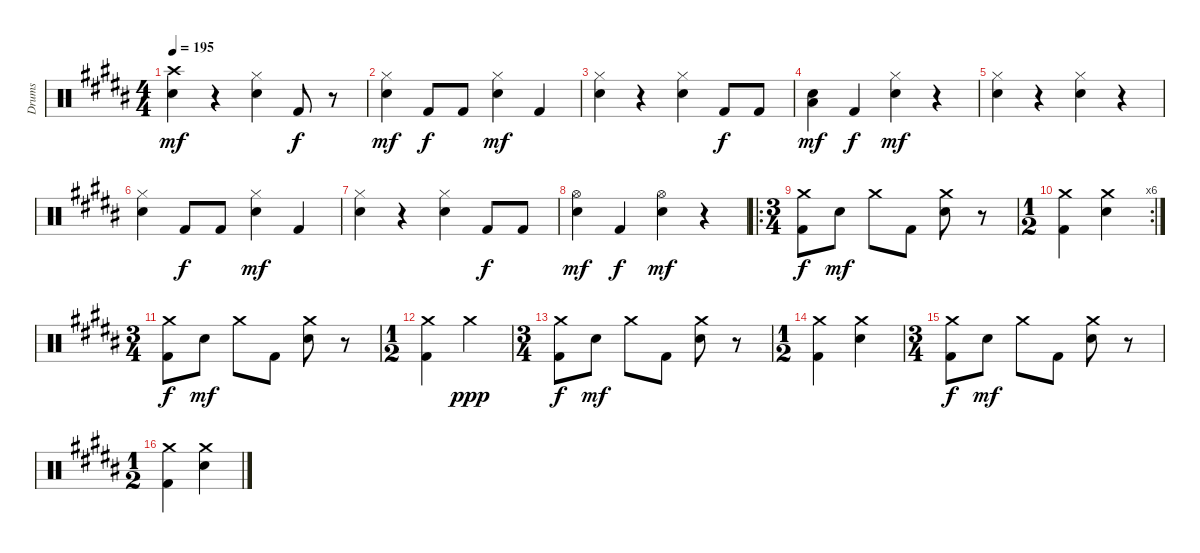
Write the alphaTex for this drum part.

\track ("Drums" "Drums") {instrument percussion}
\staff {score}
\articulation defaults
\ts (4 4)
\tempo 195
\clef neutral
\ks b
("Crash high (hit)" "Electric Snare (hit)").4{dy mf} r.4 ("Hi-Hat (closed)" "Electric Snare (hit)").4 "Kick (hit) 2".8{dy f} r.8 |
("Hi-Hat (closed)" "Electric Snare (hit)").4{dy mf} "Kick (hit) 2".8{dy f} "Kick (hit) 2".8 ("Hi-Hat (closed)" "Electric Snare (hit)").4{dy mf} "Kick (hit) 2".4 |
("Hi-Hat (closed)" "Electric Snare (hit)").4 r.4 ("Hi-Hat (closed)" "Electric Snare (hit)").4 "Kick (hit) 2".8{dy f} "Kick (hit) 2".8 |
("Electric Snare (hit)" "Low Floor Tom (hit)").4{dy mf} "Kick (hit) 2".4{dy f} ("Hi-Hat (closed)" "Electric Snare (hit)").4{dy mf} r.4 |
("Hi-Hat (closed)" "Electric Snare (hit)").4 r.4 ("Hi-Hat (closed)" "Electric Snare (hit)").4 r.4 |
("Hi-Hat (closed)" "Electric Snare (hit)").4 "Kick (hit) 2".8{dy f} "Kick (hit) 2".8 ("Hi-Hat (closed)" "Electric Snare (hit)").4{dy mf} "Kick (hit) 2".4 |
("Hi-Hat (closed)" "Electric Snare (hit)").4 r.4 ("Hi-Hat (closed)" "Electric Snare (hit)").4 "Kick (hit) 2".8{dy f} "Kick (hit) 2".8 |
("Hi-Hat (open)" "Electric Snare (hit)").4{dy mf} "Kick (hit) 2".4{dy f} ("Hi-Hat (open)" "Electric Snare (hit)").4{dy mf} r.4 |
\ro
\ts (3 4)
("Crash medium (hit)" "Kick (hit) 2").8{dy f} "Electric Snare (hit)".8{dy mf} "Crash medium (hit)".8 "Kick (hit) 2".8 ("Crash medium (hit)" "Electric Snare (hit)").8 r.8 |
\rc 6
\ts (1 2)
("Crash medium (hit)" "Kick (hit) 2").4 ("Crash medium (hit)" "Electric Snare (hit)").4 |
\ts (3 4)
("Crash medium (hit)" "Kick (hit) 2").8{dy f} "Electric Snare (hit)".8{dy mf} "Crash medium (hit)".8 "Kick (hit) 2".8 ("Crash medium (hit)" "Electric Snare (hit)").8 r.8 |
\ts (1 2)
("Crash medium (hit)" "Kick (hit) 2").4 "Crash medium (hit)".4{dy ppp} |
\ts (3 4)
("Crash medium (hit)" "Kick (hit) 2").8{dy f} "Electric Snare (hit)".8{dy mf} "Crash medium (hit)".8 "Kick (hit) 2".8 ("Crash medium (hit)" "Electric Snare (hit)").8 r.8 |
\ts (1 2)
("Crash medium (hit)" "Kick (hit) 2").4 ("Crash medium (hit)" "Electric Snare (hit)").4 |
\ts (3 4)
("Crash medium (hit)" "Kick (hit) 2").8{dy f} "Electric Snare (hit)".8{dy mf} "Crash medium (hit)".8 "Kick (hit) 2".8 ("Crash medium (hit)" "Electric Snare (hit)").8 r.8 |
\ts (1 2)
("Crash medium (hit)" "Kick (hit) 2").4 ("Crash medium (hit)" "Electric Snare (hit)").4
